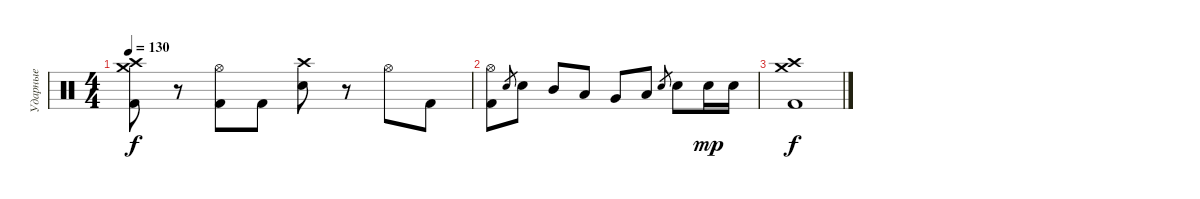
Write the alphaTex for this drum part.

\track ("Ударные" "Ударные") {instrument percussion}
\staff {score}
\articulation defaults
\ts (4 4)
\tempo 130
\clef neutral
\ks c
("Crash medium (hit)" "Crash high (hit)" "Kick (hit) 2").8{dy f} r.8 ("Hi-Hat (open)" "Kick (hit) 2").8 "Kick (hit) 2".8 ("Crash high (hit)" "Electric Snare (hit)").8 r.8 "Hi-Hat (open)".8 "Kick (hit) 2".8 |
("Hi-Hat (open)" "Kick (hit) 2").8 "Electric Snare (hit)".8{gr} "Electric Snare (hit)".8 "Mid Tom (hit)".8 "Low Tom (hit)".8 "Very Low Tom (hit)".8 "Low Floor Tom (hit)".8 "Electric Snare (hit)".8{gr} "Electric Snare (hit)".8 "Electric Snare (hit)".16{dy mp} "Electric Snare (hit)".16 |
("Crash medium (hit)" "Crash high (hit)" "Kick (hit) 2").1{dy f}
